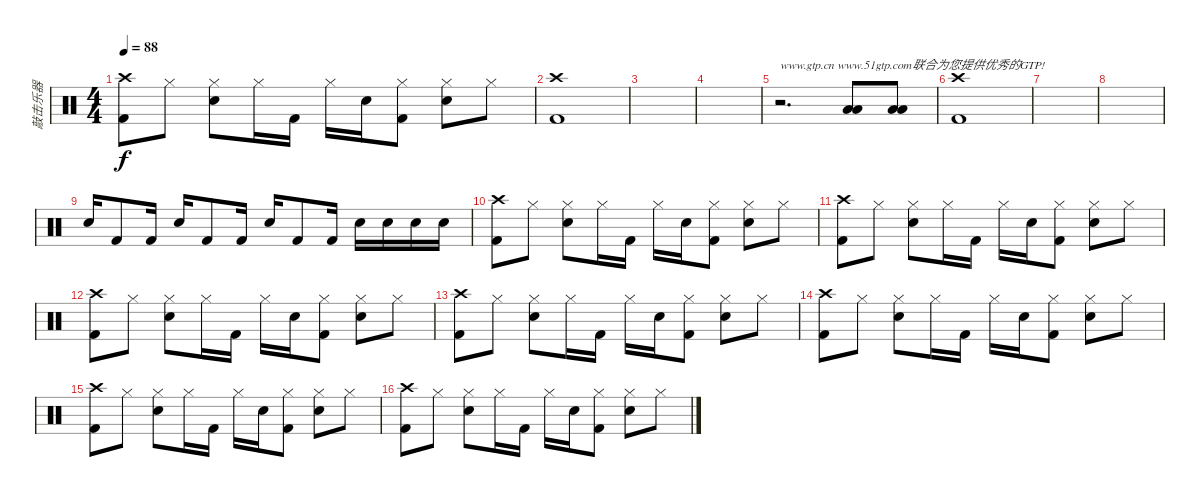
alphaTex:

\track ("敲击乐器" "敲击乐器") {instrument percussion}
\staff {score}
\articulation defaults
\ts (4 4)
\tempo 88
\clef neutral
\ks c
("Crash high (hit)" "Kick (hit) 2").8{dy f} "Hi-Hat (closed)".8 ("Hi-Hat (closed)" "Electric Snare (hit)").8 "Hi-Hat (closed)".16 "Kick (hit) 2".16 "Hi-Hat (closed)".16 "Electric Snare (hit)".16 ("Hi-Hat (closed)" "Kick (hit) 2").8 ("Hi-Hat (closed)" "Electric Snare (hit)").8 "Hi-Hat (closed)".8 |
("Crash high (hit)" "Kick (hit) 2").1 |
|
|
r.2{d txt "www.gtp.cn www.51gtp.com联合为您提供优秀的GTP!"} ("Low Tom (hit)" "Low Floor Tom (hit)").8 ("Low Tom (hit)" "Low Floor Tom (hit)").8 |
("Crash high (hit)" "Kick (hit) 2").1 |
|
|
"Electric Snare (hit)".16 "Kick (hit) 2".8 "Kick (hit) 2".16 "Electric Snare (hit)".16 "Kick (hit) 2".8 "Kick (hit) 2".16 "Electric Snare (hit)".16 "Kick (hit) 2".8 "Kick (hit) 2".16 "Electric Snare (hit)".16 "Electric Snare (hit)".16 "Electric Snare (hit)".16 "Electric Snare (hit)".16 |
("Crash high (hit)" "Kick (hit) 2").8 "Hi-Hat (closed)".8 ("Hi-Hat (closed)" "Electric Snare (hit)").8 "Hi-Hat (closed)".16 "Kick (hit) 2".16 "Hi-Hat (closed)".16 "Electric Snare (hit)".16 ("Hi-Hat (closed)" "Kick (hit) 2").8 ("Hi-Hat (closed)" "Electric Snare (hit)").8 "Hi-Hat (closed)".8 |
("Crash high (hit)" "Kick (hit) 2").8 "Hi-Hat (closed)".8 ("Hi-Hat (closed)" "Electric Snare (hit)").8 "Hi-Hat (closed)".16 "Kick (hit) 2".16 "Hi-Hat (closed)".16 "Electric Snare (hit)".16 ("Hi-Hat (closed)" "Kick (hit) 2").8 ("Hi-Hat (closed)" "Electric Snare (hit)").8 "Hi-Hat (closed)".8 |
("Crash high (hit)" "Kick (hit) 2").8 "Hi-Hat (closed)".8 ("Hi-Hat (closed)" "Electric Snare (hit)").8 "Hi-Hat (closed)".16 "Kick (hit) 2".16 "Hi-Hat (closed)".16 "Electric Snare (hit)".16 ("Hi-Hat (closed)" "Kick (hit) 2").8 ("Hi-Hat (closed)" "Electric Snare (hit)").8 "Hi-Hat (closed)".8 |
("Crash high (hit)" "Kick (hit) 2").8 "Hi-Hat (closed)".8 ("Hi-Hat (closed)" "Electric Snare (hit)").8 "Hi-Hat (closed)".16 "Kick (hit) 2".16 "Hi-Hat (closed)".16 "Electric Snare (hit)".16 ("Hi-Hat (closed)" "Kick (hit) 2").8 ("Hi-Hat (closed)" "Electric Snare (hit)").8 "Hi-Hat (closed)".8 |
("Crash high (hit)" "Kick (hit) 2").8 "Hi-Hat (closed)".8 ("Hi-Hat (closed)" "Electric Snare (hit)").8 "Hi-Hat (closed)".16 "Kick (hit) 2".16 "Hi-Hat (closed)".16 "Electric Snare (hit)".16 ("Hi-Hat (closed)" "Kick (hit) 2").8 ("Hi-Hat (closed)" "Electric Snare (hit)").8 "Hi-Hat (closed)".8 |
("Crash high (hit)" "Kick (hit) 2").8 "Hi-Hat (closed)".8 ("Hi-Hat (closed)" "Electric Snare (hit)").8 "Hi-Hat (closed)".16 "Kick (hit) 2".16 "Hi-Hat (closed)".16 "Electric Snare (hit)".16 ("Hi-Hat (closed)" "Kick (hit) 2").8 ("Hi-Hat (closed)" "Electric Snare (hit)").8 "Hi-Hat (closed)".8 |
("Crash high (hit)" "Kick (hit) 2").8 "Hi-Hat (closed)".8 ("Hi-Hat (closed)" "Electric Snare (hit)").8 "Hi-Hat (closed)".16 "Kick (hit) 2".16 "Hi-Hat (closed)".16 "Electric Snare (hit)".16 ("Hi-Hat (closed)" "Kick (hit) 2").8 ("Hi-Hat (closed)" "Electric Snare (hit)").8 "Hi-Hat (closed)".8
